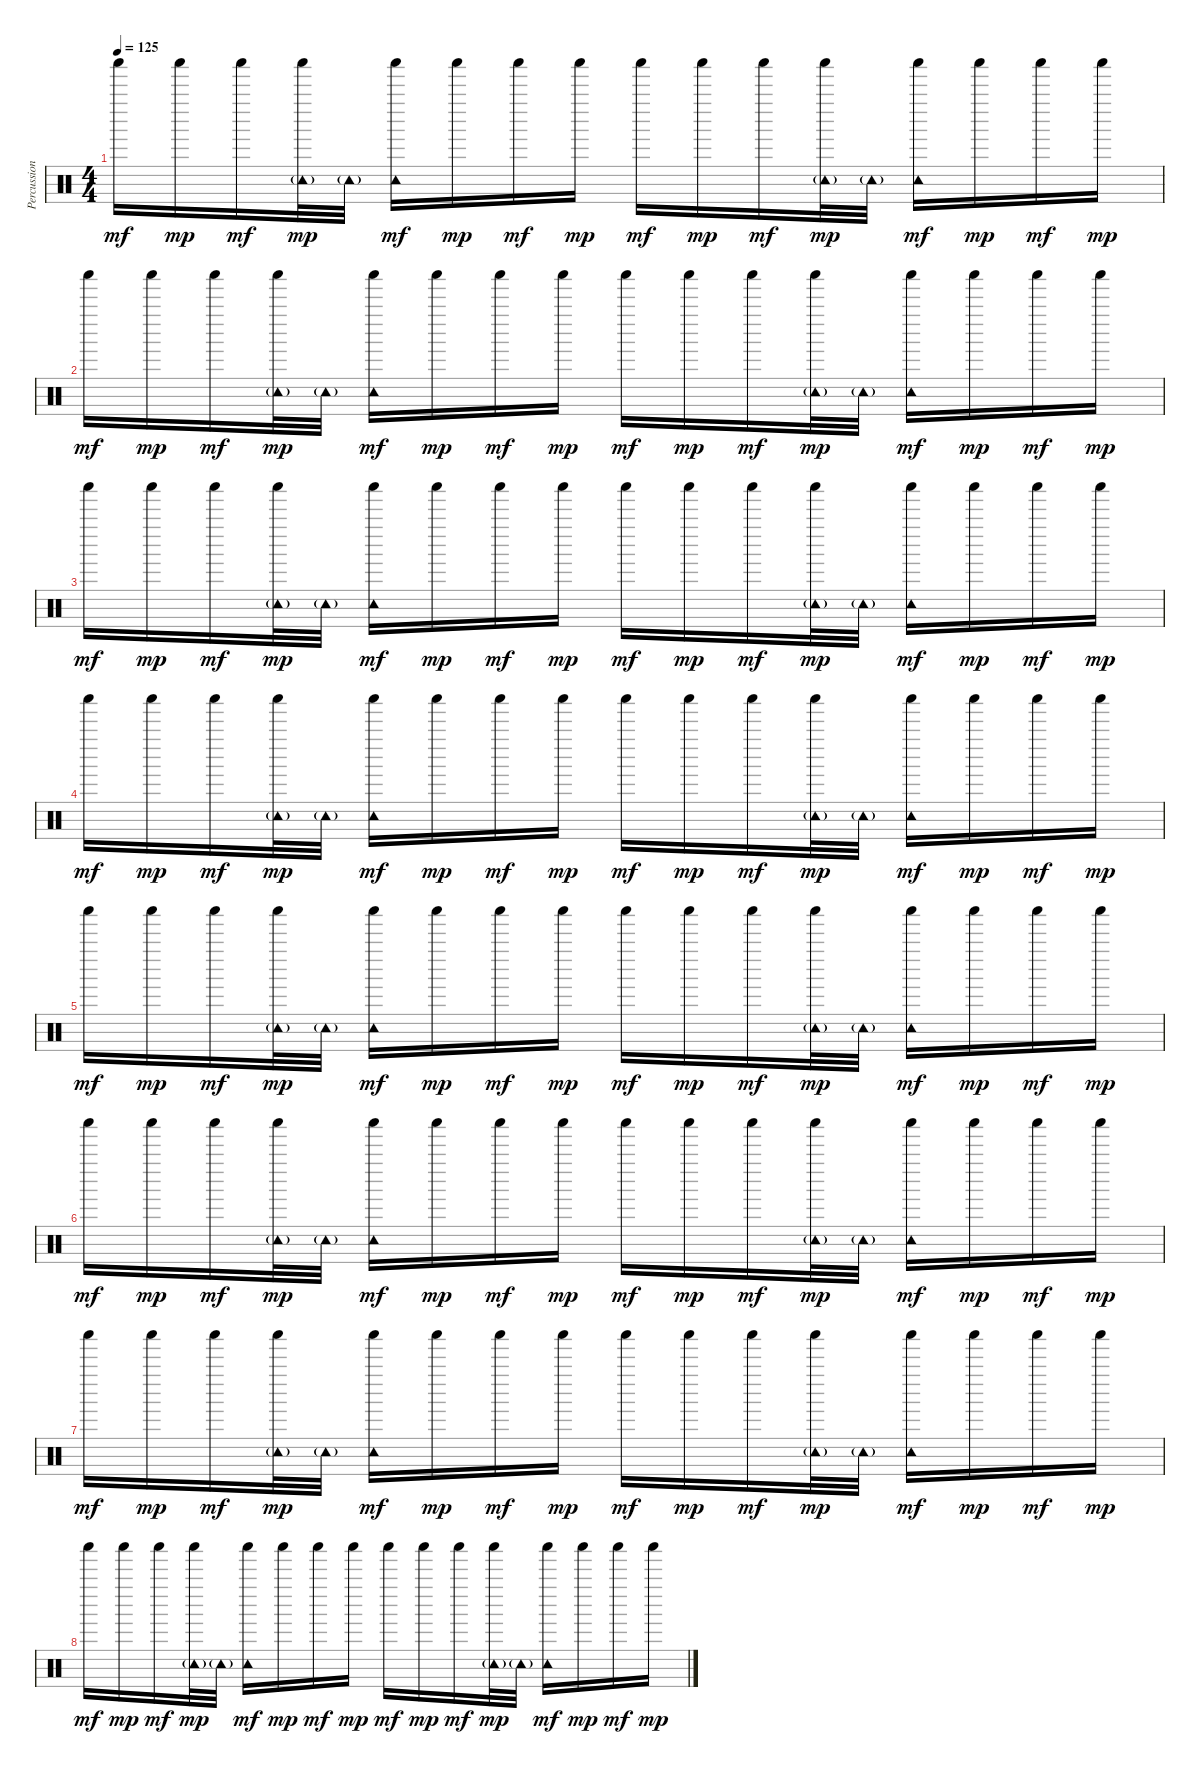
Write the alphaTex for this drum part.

\track ("Percussion" "Percussion") {instrument percussion}
\staff {score}
\articulation defaults
\ts (4 4)
\tempo 125
\clef neutral
\ks c "Shaker (hit)".16{dy mf} "Shaker (hit)".16{dy mp} "Shaker (hit)".16{dy mf}
("Tambourine (hit)"{g} "Shaker (hit)").32{dy mp} "Tambourine (hit)"{g}.32 ("Tambourine (hit)" "Shaker (hit)").16{dy mf} "Shaker (hit)".16{dy mp} "Shaker (hit)".16{dy mf} "Shaker (hit)".16{dy mp} "Shaker (hit)".16{dy mf} "Shaker (hit)".16{dy mp} "Shaker (hit)".16{dy mf} ("Tambourine (hit)"{g} "Shaker (hit)").32{dy mp} "Tambourine (hit)"{g}.32 ("Tambourine (hit)" "Shaker (hit)").16{dy mf} "Shaker (hit)".16{dy mp} "Shaker (hit)".16{dy mf} "Shaker (hit)".16{dy mp} |
"Shaker (hit)".16{dy mf} "Shaker (hit)".16{dy mp} "Shaker (hit)".16{dy mf} ("Tambourine (hit)"{g} "Shaker (hit)").32{dy mp} "Tambourine (hit)"{g}.32 ("Tambourine (hit)" "Shaker (hit)").16{dy mf} "Shaker (hit)".16{dy mp} "Shaker (hit)".16{dy mf} "Shaker (hit)".16{dy mp} "Shaker (hit)".16{dy mf} "Shaker (hit)".16{dy mp} "Shaker (hit)".16{dy mf} ("Tambourine (hit)"{g} "Shaker (hit)").32{dy mp} "Tambourine (hit)"{g}.32 ("Tambourine (hit)" "Shaker (hit)").16{dy mf} "Shaker (hit)".16{dy mp} "Shaker (hit)".16{dy mf} "Shaker (hit)".16{dy mp} |
"Shaker (hit)".16{dy mf} "Shaker (hit)".16{dy mp} "Shaker (hit)".16{dy mf} ("Tambourine (hit)"{g} "Shaker (hit)").32{dy mp} "Tambourine (hit)"{g}.32 ("Tambourine (hit)" "Shaker (hit)").16{dy mf} "Shaker (hit)".16{dy mp} "Shaker (hit)".16{dy mf} "Shaker (hit)".16{dy mp} "Shaker (hit)".16{dy mf} "Shaker (hit)".16{dy mp} "Shaker (hit)".16{dy mf} ("Tambourine (hit)"{g} "Shaker (hit)").32{dy mp} "Tambourine (hit)"{g}.32 ("Tambourine (hit)" "Shaker (hit)").16{dy mf} "Shaker (hit)".16{dy mp} "Shaker (hit)".16{dy mf} "Shaker (hit)".16{dy mp} |
"Shaker (hit)".16{dy mf} "Shaker (hit)".16{dy mp} "Shaker (hit)".16{dy mf} ("Tambourine (hit)"{g} "Shaker (hit)").32{dy mp} "Tambourine (hit)"{g}.32 ("Tambourine (hit)" "Shaker (hit)").16{dy mf} "Shaker (hit)".16{dy mp} "Shaker (hit)".16{dy mf} "Shaker (hit)".16{dy mp} "Shaker (hit)".16{dy mf} "Shaker (hit)".16{dy mp} "Shaker (hit)".16{dy mf} ("Tambourine (hit)"{g} "Shaker (hit)").32{dy mp} "Tambourine (hit)"{g}.32 ("Tambourine (hit)" "Shaker (hit)").16{dy mf} "Shaker (hit)".16{dy mp} "Shaker (hit)".16{dy mf} "Shaker (hit)".16{dy mp} |
"Shaker (hit)".16{dy mf} "Shaker (hit)".16{dy mp} "Shaker (hit)".16{dy mf} ("Tambourine (hit)"{g} "Shaker (hit)").32{dy mp} "Tambourine (hit)"{g}.32 ("Tambourine (hit)" "Shaker (hit)").16{dy mf} "Shaker (hit)".16{dy mp} "Shaker (hit)".16{dy mf} "Shaker (hit)".16{dy mp} "Shaker (hit)".16{dy mf} "Shaker (hit)".16{dy mp} "Shaker (hit)".16{dy mf} ("Tambourine (hit)"{g} "Shaker (hit)").32{dy mp} "Tambourine (hit)"{g}.32 ("Tambourine (hit)" "Shaker (hit)").16{dy mf} "Shaker (hit)".16{dy mp} "Shaker (hit)".16{dy mf} "Shaker (hit)".16{dy mp} |
"Shaker (hit)".16{dy mf} "Shaker (hit)".16{dy mp} "Shaker (hit)".16{dy mf} ("Tambourine (hit)"{g} "Shaker (hit)").32{dy mp} "Tambourine (hit)"{g}.32 ("Tambourine (hit)" "Shaker (hit)").16{dy mf} "Shaker (hit)".16{dy mp} "Shaker (hit)".16{dy mf} "Shaker (hit)".16{dy mp} "Shaker (hit)".16{dy mf} "Shaker (hit)".16{dy mp} "Shaker (hit)".16{dy mf} ("Tambourine (hit)"{g} "Shaker (hit)").32{dy mp} "Tambourine (hit)"{g}.32 ("Tambourine (hit)" "Shaker (hit)").16{dy mf} "Shaker (hit)".16{dy mp} "Shaker (hit)".16{dy mf} "Shaker (hit)".16{dy mp} |
"Shaker (hit)".16{dy mf} "Shaker (hit)".16{dy mp} "Shaker (hit)".16{dy mf} ("Tambourine (hit)"{g} "Shaker (hit)").32{dy mp} "Tambourine (hit)"{g}.32 ("Tambourine (hit)" "Shaker (hit)").16{dy mf} "Shaker (hit)".16{dy mp} "Shaker (hit)".16{dy mf} "Shaker (hit)".16{dy mp} "Shaker (hit)".16{dy mf} "Shaker (hit)".16{dy mp} "Shaker (hit)".16{dy mf} ("Tambourine (hit)"{g} "Shaker (hit)").32{dy mp} "Tambourine (hit)"{g}.32 ("Tambourine (hit)" "Shaker (hit)").16{dy mf} "Shaker (hit)".16{dy mp} "Shaker (hit)".16{dy mf} "Shaker (hit)".16{dy mp} |
"Shaker (hit)".16{dy mf} "Shaker (hit)".16{dy mp} "Shaker (hit)".16{dy mf} ("Tambourine (hit)"{g} "Shaker (hit)").32{dy mp} "Tambourine (hit)"{g}.32 ("Tambourine (hit)" "Shaker (hit)").16{dy mf} "Shaker (hit)".16{dy mp} "Shaker (hit)".16{dy mf} "Shaker (hit)".16{dy mp} "Shaker (hit)".16{dy mf} "Shaker (hit)".16{dy mp} "Shaker (hit)".16{dy mf} ("Tambourine (hit)"{g} "Shaker (hit)").32{dy mp} "Tambourine (hit)"{g}.32 ("Tambourine (hit)" "Shaker (hit)").16{dy mf} "Shaker (hit)".16{dy mp} "Shaker (hit)".16{dy mf} "Shaker (hit)".16{dy mp}
